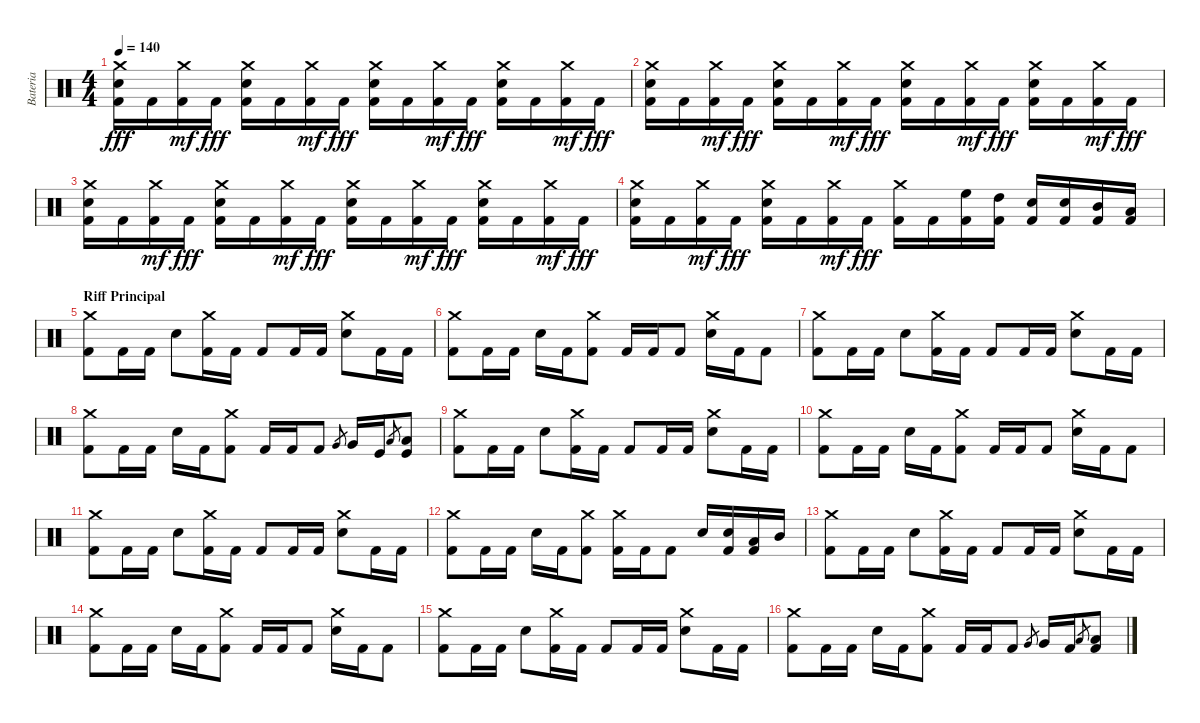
\track ("Bateria" "Bateria") {instrument percussion}
\staff {score}
\articulation defaults
\ts (4 4)
\tempo 140
\clef neutral
\ks c
("Kick (hit) 2" "Metronome (bell)" "Crash medium (hit)").16{dy fff} "Kick (hit) 2".16 ("Kick (hit) 2" "Crash medium (hit)").16{dy mf} "Kick (hit) 2".16{dy fff} ("Kick (hit) 2" "Metronome (bell)" "Crash medium (hit)").16 "Kick (hit) 2".16 ("Kick (hit) 2" "Crash medium (hit)").16{dy mf} "Kick (hit) 2".16{dy fff} ("Kick (hit) 2" "Metronome (bell)" "Crash medium (hit)").16 "Kick (hit) 2".16 ("Kick (hit) 2" "Crash medium (hit)").16{dy mf} "Kick (hit) 2".16{dy fff} ("Kick (hit) 2" "Metronome (bell)" "Crash medium (hit)").16 "Kick (hit) 2".16 ("Kick (hit) 2" "Crash medium (hit)").16{dy mf} "Kick (hit) 2".16{dy fff} |
("Kick (hit) 2" "Metronome (bell)" "Crash medium (hit)").16 "Kick (hit) 2".16 ("Kick (hit) 2" "Crash medium (hit)").16{dy mf} "Kick (hit) 2".16{dy fff} ("Kick (hit) 2" "Metronome (bell)" "Crash medium (hit)").16 "Kick (hit) 2".16 ("Kick (hit) 2" "Crash medium (hit)").16{dy mf} "Kick (hit) 2".16{dy fff} ("Kick (hit) 2" "Metronome (bell)" "Crash medium (hit)").16 "Kick (hit) 2".16 ("Kick (hit) 2" "Crash medium (hit)").16{dy mf} "Kick (hit) 2".16{dy fff} ("Kick (hit) 2" "Metronome (bell)" "Crash medium (hit)").16 "Kick (hit) 2".16 ("Kick (hit) 2" "Crash medium (hit)").16{dy mf} "Kick (hit) 2".16{dy fff} |
("Kick (hit) 2" "Metronome (bell)" "Crash medium (hit)").16 "Kick (hit) 2".16 ("Kick (hit) 2" "Crash medium (hit)").16{dy mf} "Kick (hit) 2".16{dy fff} ("Kick (hit) 2" "Metronome (bell)" "Crash medium (hit)").16 "Kick (hit) 2".16 ("Kick (hit) 2" "Crash medium (hit)").16{dy mf} "Kick (hit) 2".16{dy fff} ("Kick (hit) 2" "Metronome (bell)" "Crash medium (hit)").16 "Kick (hit) 2".16 ("Kick (hit) 2" "Crash medium (hit)").16{dy mf} "Kick (hit) 2".16{dy fff} ("Kick (hit) 2" "Metronome (bell)" "Crash medium (hit)").16 "Kick (hit) 2".16 ("Kick (hit) 2" "Crash medium (hit)").16{dy mf} "Kick (hit) 2".16{dy fff} |
("Kick (hit) 2" "Metronome (bell)" "Crash medium (hit)").16 "Kick (hit) 2".16 ("Kick (hit) 2" "Crash medium (hit)").16{dy mf} "Kick (hit) 2".16{dy fff} ("Kick (hit) 2" "Metronome (bell)" "Crash medium (hit)").16 "Kick (hit) 2".16 ("Kick (hit) 2" "Crash medium (hit)").16{dy mf} "Kick (hit) 2".16{dy fff} ("Kick (hit) 2" "Crash medium (hit)").16 "Kick (hit) 2".16 ("Kick (hit) 2" "High Floor Tom (hit)").16 ("Kick (hit) 2" "High Tom (hit)").16 ("Kick (hit) 2" "Metronome (bell)").16 ("Kick (hit) 2" "Metronome (bell)").16 ("Kick (hit) 2" "Mid Tom (hit)").16 ("Kick (hit) 2" "Low Tom (hit)").16 |
\section ("" "Riff Principal")
("Kick (hit) 2" "Crash medium (hit)").8 "Kick (hit) 2".16 "Kick (hit) 2".16 "Metronome (bell)".8 ("Kick (hit) 2" "Crash medium (hit)").16 "Kick (hit) 2".16 "Kick (hit) 2".8 "Kick (hit) 2".16 "Kick (hit) 2".16 ("Metronome (bell)" "Crash medium (hit)").8 "Kick (hit) 2".16 "Kick (hit) 2".16 |
("Kick (hit) 2" "Crash medium (hit)").8 "Kick (hit) 2".16 "Kick (hit) 2".16 "Metronome (bell)".16 "Kick (hit) 2".16 ("Kick (hit) 2" "Crash medium (hit)").8 "Kick (hit) 2".16 "Kick (hit) 2".16 "Kick (hit) 2".8 ("Metronome (bell)" "Crash medium (hit)").16 "Kick (hit) 2".16 "Kick (hit) 2".8 |
("Kick (hit) 2" "Crash medium (hit)").8 "Kick (hit) 2".16 "Kick (hit) 2".16 "Metronome (bell)".8 ("Kick (hit) 2" "Crash medium (hit)").16 "Kick (hit) 2".16 "Kick (hit) 2".8 "Kick (hit) 2".16 "Kick (hit) 2".16 ("Metronome (bell)" "Crash medium (hit)").8 "Kick (hit) 2".16 "Kick (hit) 2".16 |
("Kick (hit) 2" "Crash medium (hit)").8 "Kick (hit) 2".16 "Kick (hit) 2".16 "Metronome (bell)".16 "Kick (hit) 2".16 ("Kick (hit) 2" "Crash medium (hit)").8 "Kick (hit) 2".16 "Kick (hit) 2".16 "Kick (hit) 2".8 "Very Low Tom (hit)".8{gr} "Very Low Tom (hit)".16 "Kick (hit)".16 "Low Tom (hit)".8{gr} ("Kick (hit)" "Low Tom (hit)").8 |
("Kick (hit) 2" "Crash medium (hit)").8 "Kick (hit) 2".16 "Kick (hit) 2".16 "Metronome (bell)".8 ("Kick (hit) 2" "Crash medium (hit)").16 "Kick (hit) 2".16 "Kick (hit) 2".8 "Kick (hit) 2".16 "Kick (hit) 2".16 ("Metronome (bell)" "Crash medium (hit)").8 "Kick (hit) 2".16 "Kick (hit) 2".16 |
("Kick (hit) 2" "Crash medium (hit)").8 "Kick (hit) 2".16 "Kick (hit) 2".16 "Metronome (bell)".16 "Kick (hit) 2".16 ("Kick (hit) 2" "Crash medium (hit)").8 "Kick (hit) 2".16 "Kick (hit) 2".16 "Kick (hit) 2".8 ("Metronome (bell)" "Crash medium (hit)").16 "Kick (hit) 2".16 "Kick (hit) 2".8 |
("Kick (hit) 2" "Crash medium (hit)").8 "Kick (hit) 2".16 "Kick (hit) 2".16 "Metronome (bell)".8 ("Kick (hit) 2" "Crash medium (hit)").16 "Kick (hit) 2".16 "Kick (hit) 2".8 "Kick (hit) 2".16 "Kick (hit) 2".16 ("Metronome (bell)" "Crash medium (hit)").8 "Kick (hit) 2".16 "Kick (hit) 2".16 |
("Kick (hit) 2" "Crash medium (hit)").8 "Kick (hit) 2".16 "Kick (hit) 2".16 "Metronome (bell)".16 "Kick (hit) 2".16 ("Kick (hit) 2" "Crash medium (hit)").8 ("Kick (hit) 2" "Crash medium (hit)").16 "Kick (hit) 2".16 "Kick (hit) 2".8 "Metronome (bell)".16 ("Kick (hit) 2" "Metronome (bell)").16 ("Kick (hit) 2" "Low Tom (hit)").16 "Mid Tom (hit)".16 |
("Kick (hit) 2" "Crash medium (hit)").8 "Kick (hit) 2".16 "Kick (hit) 2".16 "Metronome (bell)".8 ("Kick (hit) 2" "Crash medium (hit)").16 "Kick (hit) 2".16 "Kick (hit) 2".8 "Kick (hit) 2".16 "Kick (hit) 2".16 ("Metronome (bell)" "Crash medium (hit)").8 "Kick (hit) 2".16 "Kick (hit) 2".16 |
("Kick (hit) 2" "Crash medium (hit)").8 "Kick (hit) 2".16 "Kick (hit) 2".16 "Metronome (bell)".16 "Kick (hit) 2".16 ("Kick (hit) 2" "Crash medium (hit)").8 "Kick (hit) 2".16 "Kick (hit) 2".16 "Kick (hit) 2".8 ("Metronome (bell)" "Crash medium (hit)").16 "Kick (hit) 2".16 "Kick (hit) 2".8 |
("Kick (hit) 2" "Crash medium (hit)").8 "Kick (hit) 2".16 "Kick (hit) 2".16 "Metronome (bell)".8 ("Kick (hit) 2" "Crash medium (hit)").16 "Kick (hit) 2".16 "Kick (hit) 2".8 "Kick (hit) 2".16 "Kick (hit) 2".16 ("Metronome (bell)" "Crash medium (hit)").8 "Kick (hit) 2".16 "Kick (hit) 2".16 |
("Kick (hit) 2" "Crash medium (hit)").8 "Kick (hit) 2".16 "Kick (hit) 2".16 "Metronome (bell)".16 "Kick (hit) 2".16 ("Kick (hit) 2" "Crash medium (hit)").8 "Kick (hit) 2".16 "Kick (hit) 2".16 "Kick (hit) 2".8 "Very Low Tom (hit)".8{gr} "Very Low Tom (hit)".16 "Kick (hit) 2".16 "Low Tom (hit)".8{gr} ("Kick (hit) 2" "Low Tom (hit)").8
